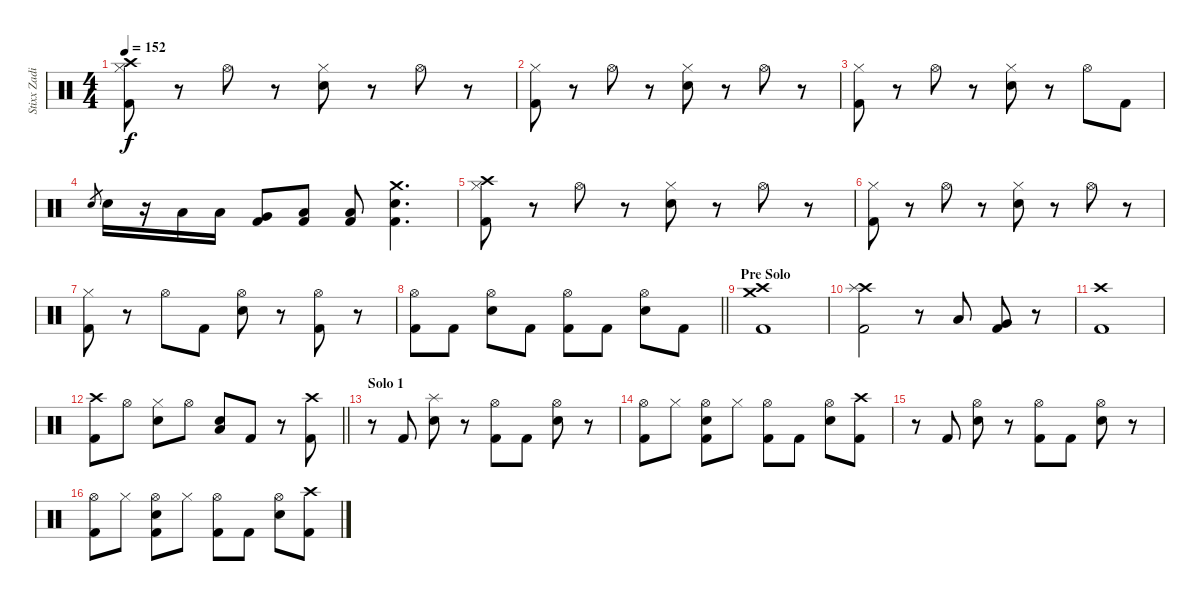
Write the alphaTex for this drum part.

\track ("Stixx Zadinia" "Stixx Zadi") {instrument percussion}
\staff {score}
\articulation defaults
\ts (4 4)
\tempo 152
\clef neutral
\ks c
("Crash high (hit)" "Hi-Hat (closed)" "Kick (hit) 2").8{dy f} r.8 "Hi-Hat (open)".8 r.8 ("Hi-Hat (closed)" "Snare (hit) 2").8 r.8 "Hi-Hat (open)".8 r.8 |
("Hi-Hat (closed)" "Kick (hit) 2").8 r.8 "Hi-Hat (open)".8 r.8 ("Hi-Hat (closed)" "Snare (hit) 2").8 r.8 "Hi-Hat (open)".8 r.8 |
("Hi-Hat (closed)" "Kick (hit) 2").8 r.8 "Hi-Hat (open)".8 r.8 ("Hi-Hat (closed)" "Snare (hit) 2").8 r.8 "Hi-Hat (open)".8 "Kick (hit) 2".8 |
"Snare (hit) 2".8{gr} "Snare (hit) 2".16 r.16 "Low Tom (hit)".16 "Low Tom (hit)".16 ("Very Low Tom (hit)" "Kick (hit) 2").8 ("Low Floor Tom (hit)" "Kick (hit) 2").8 ("Low Floor Tom (hit)" "Kick (hit) 2").8 ("Crash medium (hit)" "Snare (hit) 2" "Kick (hit) 2").4{d} |
("Crash high (hit)" "Hi-Hat (closed)" "Kick (hit) 2").8 r.8 "Hi-Hat (open)".8 r.8 ("Hi-Hat (closed)" "Snare (hit) 2").8 r.8 "Hi-Hat (open)".8 r.8 |
("Hi-Hat (closed)" "Kick (hit) 2").8 r.8 "Hi-Hat (open)".8 r.8 ("Hi-Hat (closed)" "Snare (hit) 2").8 r.8 "Hi-Hat (open)".8 r.8 |
("Hi-Hat (closed)" "Kick (hit) 2").8 r.8 "Hi-Hat (open)".8 "Kick (hit) 2".8 ("Hi-Hat (open)" "Snare (hit) 2").8 r.8 ("Hi-Hat (open)" "Kick (hit) 2").8 r.8 |
\barLineRight lightlight
("Hi-Hat (open)" "Kick (hit) 2").8 "Kick (hit) 2".8 ("Hi-Hat (open)" "Snare (hit) 2").8 "Kick (hit) 2".8 ("Hi-Hat (open)" "Kick (hit) 2").8 "Kick (hit) 2".8 ("Hi-Hat (open)" "Snare (hit) 2").8 "Kick (hit) 2".8 |
\section ("" "Pre Solo")
("Crash high (hit)" "Crash medium (hit)" "Kick (hit) 2").1 |
("Crash high (hit)" "Splash (hit)" "Kick (hit) 2").2 r.8 "Low Tom (hit)".8 ("Very Low Tom (hit)" "Kick (hit) 2").8 r.8 |
("Crash high (hit)" "Kick (hit) 2").1 |
\barLineRight lightlight
("Crash high (hit)" "Kick (hit) 2").8 "Hi-Hat (open)".8 ("Hi-Hat (closed)" "Snare (hit) 2").8 "Hi-Hat (open)".8 ("Low Floor Tom (hit)" "Snare (hit) 2").8 "Kick (hit) 2".8 r.8 ("Crash high (hit)" "Kick (hit) 2").8 |
\section ("" "Solo 1")
r.8 "Kick (hit) 2".8 ("Splash (hit)" "Snare (hit) 2").8 r.8 ("Hi-Hat (open)" "Kick (hit) 2").8 "Kick (hit) 2".8 ("Hi-Hat (open)" "Snare (hit) 2").8 r.8 |
("Hi-Hat (open)" "Kick (hit) 2").8 "Hi-Hat (closed)".8 ("Hi-Hat (open)" "Snare (hit) 2" "Kick (hit) 2").8 "Hi-Hat (closed)".8 ("Hi-Hat (open)" "Kick (hit) 2").8 "Kick (hit) 2".8 ("Hi-Hat (open)" "Snare (hit) 2").8 ("Crash high (hit)" "Kick (hit) 2").8 |
r.8 "Kick (hit) 2".8 ("Hi-Hat (open)" "Snare (hit) 2").8 r.8 ("Hi-Hat (open)" "Kick (hit) 2").8 "Kick (hit) 2".8 ("Hi-Hat (open)" "Snare (hit) 2").8 r.8 |
("Hi-Hat (open)" "Kick (hit) 2").8 "Hi-Hat (closed)".8 ("Hi-Hat (open)" "Snare (hit) 2" "Kick (hit) 2").8 "Hi-Hat (closed)".8 ("Hi-Hat (open)" "Kick (hit) 2").8 "Kick (hit) 2".8 ("Hi-Hat (open)" "Snare (hit) 2").8 ("Crash high (hit)" "Kick (hit) 2").8
